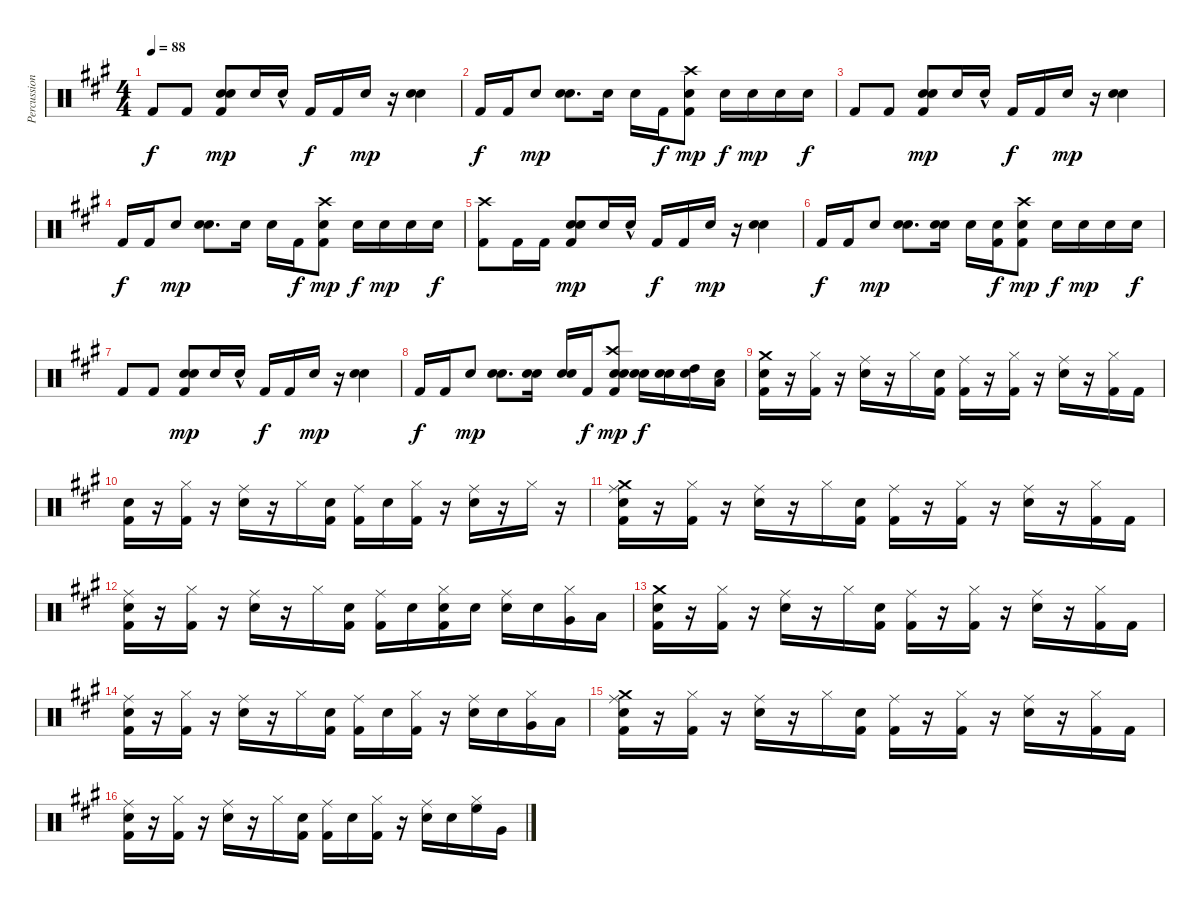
\track ("Percussion" "Percussion") {instrument percussion}
\staff {score}
\articulation defaults
\ts (4 4)
\tempo 88
\clef neutral
\ks f#minor "Kick (hit) 2".8{dy f} "Kick (hit) 2".8
("Electric Snare (hit)" "Kick (hit) 2" "Hand Clap (hit)").8{dy mp} "Hand Clap (hit)".16 "Hand Clap (hit)"{hac}.16 "Kick (hit) 2".16{dy f} "Kick (hit) 2".16 "Hand Clap (hit)".16{dy mp} r.16 ("Electric Snare (hit)" "Hand Clap (hit)").4 |
"Kick (hit) 2".16{dy f} "Kick (hit) 2".16 "Hand Clap (hit)".8{dy mp} ("Electric Snare (hit)" "Hand Clap (hit)").8{d} "Hand Clap (hit)".16 "Hand Clap (hit)".16 "Kick (hit) 2".16{dy f} ("Hand Clap (hit)" "Crash high (hit)" "Kick (hit) 2").8{dy mp} "Electric Snare (hit)".16{dy f} "Hand Clap (hit)".16{dy mp} "Hand Clap (hit)".16 "Electric Snare (hit)".16{dy f} |
"Kick (hit) 2".8 "Kick (hit) 2".8 ("Electric Snare (hit)" "Kick (hit) 2" "Hand Clap (hit)").8{dy mp} "Hand Clap (hit)".16 "Hand Clap (hit)"{hac}.16 "Kick (hit) 2".16{dy f} "Kick (hit) 2".16 "Hand Clap (hit)".16{dy mp} r.16 ("Electric Snare (hit)" "Hand Clap (hit)").4 |
"Kick (hit) 2".16{dy f} "Kick (hit) 2".16 "Hand Clap (hit)".8{dy mp} ("Electric Snare (hit)" "Hand Clap (hit)").8{d} "Hand Clap (hit)".16 "Hand Clap (hit)".16 "Kick (hit) 2".16{dy f} ("Hand Clap (hit)" "Crash high (hit)" "Kick (hit) 2").8{dy mp} "Electric Snare (hit)".16{dy f} "Hand Clap (hit)".16{dy mp} "Hand Clap (hit)".16 "Electric Snare (hit)".16{dy f} |
("Crash high (hit)" "Kick (hit) 2").8 "Kick (hit) 2".16 "Kick (hit) 2".16 ("Electric Snare (hit)" "Kick (hit) 2" "Hand Clap (hit)").8{dy mp} "Hand Clap (hit)".16 "Hand Clap (hit)"{hac}.16 "Kick (hit) 2".16{dy f} "Kick (hit) 2".16 "Hand Clap (hit)".16{dy mp} r.16 ("Electric Snare (hit)" "Hand Clap (hit)").4 |
"Kick (hit) 2".16{dy f} "Kick (hit) 2".16 "Hand Clap (hit)".8{dy mp} ("Electric Snare (hit)" "Hand Clap (hit)").8{d} ("Snare (hit) 2" "Hand Clap (hit)").16 "Hand Clap (hit)".16 ("Snare (hit) 2" "Kick (hit) 2").16{dy f} ("Hand Clap (hit)" "Crash high (hit)" "Kick (hit) 2").8{dy mp} "Electric Snare (hit)".16{dy f} "Hand Clap (hit)".16{dy mp} "Hand Clap (hit)".16 "Electric Snare (hit)".16{dy f} |
"Kick (hit) 2".8 "Kick (hit) 2".8 ("Electric Snare (hit)" "Kick (hit) 2" "Hand Clap (hit)").8{dy mp} "Hand Clap (hit)".16 "Hand Clap (hit)"{hac}.16 "Kick (hit) 2".16{dy f} "Kick (hit) 2".16 "Hand Clap (hit)".16{dy mp} r.16 ("Electric Snare (hit)" "Hand Clap (hit)").4 |
"Kick (hit) 2".16{dy f} "Kick (hit) 2".16 "Hand Clap (hit)".8{dy mp} ("Electric Snare (hit)" "Hand Clap (hit)").8{d} ("Snare (hit) 2" "Hand Clap (hit)").16 ("Hand Clap (hit)" "Snare (hit) 2").16 "Kick (hit) 2".16{dy f} ("Snare (hit) 2" "Hand Clap (hit)" "Crash high (hit)" "Kick (hit) 2").8{dy mp} ("Electric Snare (hit)" "Snare (hit) 2").16{dy f} ("Hand Clap (hit)" "Snare (hit) 2").16 ("Hand Clap (hit)" "High Tom (hit)").16 ("Electric Snare (hit)" "Low Floor Tom (hit)").16 |
("Crash medium (hit)" "Snare (hit) 2" "Kick (hit) 2").16 r.16 ("Kick (hit) 2" "Hi-Hat (closed)").16 r.16 ("Ride (middle)" "Snare (hit) 2").16 r.16 "Hi-Hat (closed)".16 ("Snare (hit) 2" "Kick (hit) 2").16 ("Ride (middle)" "Kick (hit) 2").16 r.16 ("Hi-Hat (closed)" "Kick (hit) 2").16 r.16 ("Snare (hit) 2" "Ride (middle)").16 r.16 ("Kick (hit) 2" "Hi-Hat (closed)").16 "Kick (hit) 2".16 |
("Snare (hit) 2" "Kick (hit) 2").16 r.16 ("Hi-Hat (closed)" "Kick (hit) 2").16 r.16 ("Ride (middle)" "Snare (hit) 2").16 r.16 "Hi-Hat (closed)".16 ("Snare (hit) 2" "Kick (hit) 2").16 ("Kick (hit) 2" "Ride (middle)").16 "Snare (hit) 2".16 ("Hi-Hat (closed)" "Kick (hit) 2").16 r.16 ("Snare (hit) 2" "Ride (middle)").16 r.16 "Hi-Hat (closed)".16 r.16 |
("Ride (middle)" "Kick (hit) 2" "Crash medium (hit)" "Snare (hit) 2").16 r.16 ("Kick (hit) 2" "Hi-Hat (closed)").16 r.16 ("Ride (middle)" "Snare (hit) 2").16 r.16 "Hi-Hat (closed)".16 ("Snare (hit) 2" "Kick (hit) 2").16 ("Kick (hit) 2" "Ride (middle)").16 r.16 ("Hi-Hat (closed)" "Kick (hit) 2").16 r.16 ("Snare (hit) 2" "Ride (middle)").16 r.16 ("Kick (hit) 2" "Hi-Hat (closed)").16 "Kick (hit) 2".16 |
("Ride (middle)" "Kick (hit) 2" "Snare (hit) 2").16 r.16 ("Hi-Hat (closed)" "Kick (hit) 2").16 r.16 ("Ride (middle)" "Snare (hit) 2").16 r.16 "Hi-Hat (closed)".16 ("Snare (hit) 2" "Kick (hit) 2").16 ("Ride (middle)" "Kick (hit) 2").16 "Snare (hit) 2".16 ("Snare (hit) 2" "Hi-Hat (closed)" "Kick (hit) 2").16 "Snare (hit) 2".16 ("Snare (hit) 2" "Ride (middle)").16 "Snare (hit) 2".16 ("Very Low Tom (hit)" "Hi-Hat (closed)").16 "Low Floor Tom (hit)".16 |
("Crash medium (hit)" "Snare (hit) 2" "Kick (hit) 2").16 r.16 ("Kick (hit) 2" "Hi-Hat (closed)").16 r.16 ("Ride (middle)" "Snare (hit) 2").16 r.16 "Hi-Hat (closed)".16 ("Snare (hit) 2" "Kick (hit) 2").16 ("Ride (middle)" "Kick (hit) 2").16 r.16 ("Hi-Hat (closed)" "Kick (hit) 2").16 r.16 ("Snare (hit) 2" "Ride (middle)").16 r.16 ("Kick (hit) 2" "Hi-Hat (closed)").16 "Kick (hit) 2".16 |
("Ride (middle)" "Snare (hit) 2" "Kick (hit) 2").16 r.16 ("Hi-Hat (closed)" "Kick (hit) 2").16 r.16 ("Ride (middle)" "Snare (hit) 2").16 r.16 "Hi-Hat (closed)".16 ("Snare (hit) 2" "Kick (hit) 2").16 ("Kick (hit) 2" "Ride (middle)").16 "Snare (hit) 2".16 ("Hi-Hat (closed)" "Kick (hit) 2").16 r.16 ("Snare (hit) 2" "Ride (middle)").16 "Snare (hit) 2".16 ("Hi-Hat (closed)" "Very Low Tom (hit)").16 "Low Floor Tom (hit)".16 |
("Crash medium (hit)" "Snare (hit) 2" "Ride (middle)" "Kick (hit) 2").16 r.16 ("Kick (hit) 2" "Hi-Hat (closed)").16 r.16 ("Ride (middle)" "Snare (hit) 2").16 r.16 "Hi-Hat (closed)".16 ("Snare (hit) 2" "Kick (hit) 2").16 ("Kick (hit) 2" "Ride (middle)").16 r.16 ("Hi-Hat (closed)" "Kick (hit) 2").16 r.16 ("Snare (hit) 2" "Ride (middle)").16 r.16 ("Kick (hit) 2" "Hi-Hat (closed)").16 "Kick (hit) 2".16 |
("Ride (middle)" "Kick (hit) 2" "Snare (hit) 2").16 r.16 ("Hi-Hat (closed)" "Kick (hit) 2").16 r.16 ("Ride (middle)" "Snare (hit) 2").16 r.16 "Hi-Hat (closed)".16 ("Snare (hit) 2" "Kick (hit) 2").16 ("Ride (middle)" "Kick (hit) 2").16 "Snare (hit) 2".16 ("Hi-Hat (closed)" "Kick (hit) 2").16 r.16 ("Snare (hit) 2" "Ride (middle)").16 "Snare (hit) 2".16 ("High Floor Tom (hit)" "Hi-Hat (closed)").16 "Very Low Tom (hit)".16
